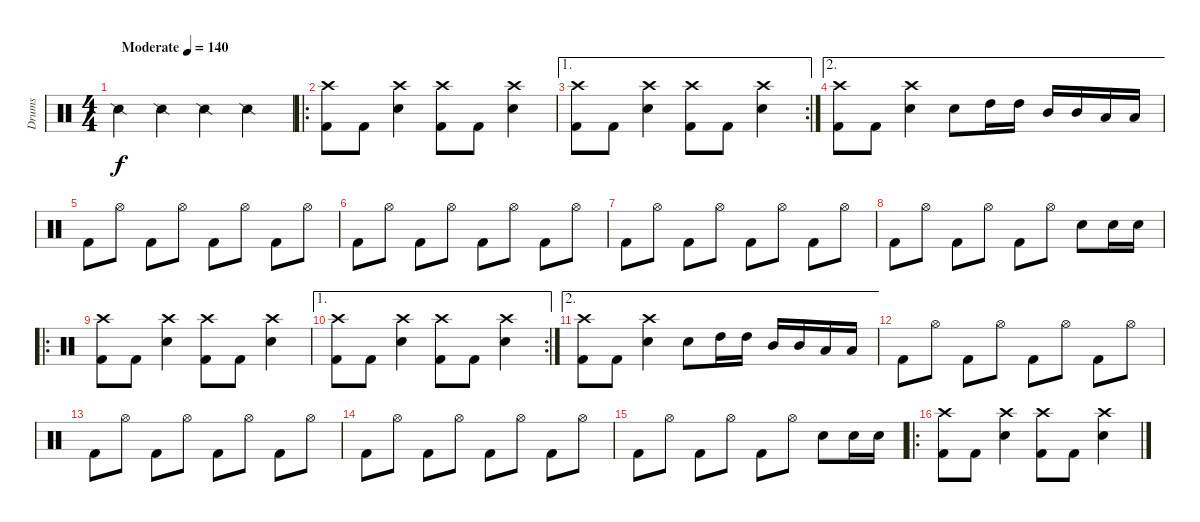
\track ("Drums" "Drums") {instrument percussion}
\staff {score}
\articulation defaults
\ts (4 4)
\tempo (140 "Moderate")
\clef neutral
\ks c "Snare (side stick) 2".4{dy f} "Snare (side stick) 2".4 "Snare (side stick) 2".4 "Snare (side stick) 2".4
|
\ro
("Crash high (hit)" "Kick (hit) 2").8 "Kick (hit) 2".8 ("Crash high (hit)" "Snare (hit) 2").4 ("Crash high (hit)" "Kick (hit) 2").8 "Kick (hit) 2".8 ("Crash high (hit)" "Snare (hit) 2").4 |
\ae 1
\rc 2
("Crash high (hit)" "Kick (hit) 2").8 "Kick (hit) 2".8 ("Crash high (hit)" "Snare (hit) 2").4 ("Crash high (hit)" "Kick (hit) 2").8 "Kick (hit) 2".8 ("Crash high (hit)" "Snare (hit) 2").4 |
\ae 2
("Crash high (hit)" "Kick (hit) 2").8 "Kick (hit) 2".8 ("Crash high (hit)" "Snare (hit) 2").4 "Snare (hit) 2".8 "High Tom (hit)".16 "High Tom (hit)".16 "Mid Tom (hit)".16 "Mid Tom (hit)".16 "Low Tom (hit)".16 "Low Tom (hit)".16 |
"Kick (hit) 2".8 "Hi-Hat (open)".8 "Kick (hit) 2".8 "Hi-Hat (open)".8 "Kick (hit) 2".8 "Hi-Hat (open)".8 "Kick (hit) 2".8 "Hi-Hat (open)".8 |
"Kick (hit) 2".8 "Hi-Hat (open)".8 "Kick (hit) 2".8 "Hi-Hat (open)".8 "Kick (hit) 2".8 "Hi-Hat (open)".8 "Kick (hit) 2".8 "Hi-Hat (open)".8 |
"Kick (hit) 2".8 "Hi-Hat (open)".8 "Kick (hit) 2".8 "Hi-Hat (open)".8 "Kick (hit) 2".8 "Hi-Hat (open)".8 "Kick (hit) 2".8 "Hi-Hat (open)".8 |
"Kick (hit) 2".8 "Hi-Hat (open)".8 "Kick (hit) 2".8 "Hi-Hat (open)".8 "Kick (hit) 2".8 "Hi-Hat (open)".8 "Snare (hit) 2".8 "Snare (hit) 2".16 "Snare (hit) 2".16 |
\ro
("Crash high (hit)" "Kick (hit) 2").8 "Kick (hit) 2".8 ("Crash high (hit)" "Snare (hit) 2").4 ("Crash high (hit)" "Kick (hit) 2").8 "Kick (hit) 2".8 ("Crash high (hit)" "Snare (hit) 2").4 |
\ae 1
\rc 2
("Crash high (hit)" "Kick (hit) 2").8 "Kick (hit) 2".8 ("Crash high (hit)" "Snare (hit) 2").4 ("Crash high (hit)" "Kick (hit) 2").8 "Kick (hit) 2".8 ("Crash high (hit)" "Snare (hit) 2").4 |
\ae 2
("Crash high (hit)" "Kick (hit) 2").8 "Kick (hit) 2".8 ("Crash high (hit)" "Snare (hit) 2").4 "Snare (hit) 2".8 "High Tom (hit)".16 "High Tom (hit)".16 "Mid Tom (hit)".16 "Mid Tom (hit)".16 "Low Tom (hit)".16 "Low Tom (hit)".16 |
"Kick (hit) 2".8 "Hi-Hat (open)".8 "Kick (hit) 2".8 "Hi-Hat (open)".8 "Kick (hit) 2".8 "Hi-Hat (open)".8 "Kick (hit) 2".8 "Hi-Hat (open)".8 |
"Kick (hit) 2".8 "Hi-Hat (open)".8 "Kick (hit) 2".8 "Hi-Hat (open)".8 "Kick (hit) 2".8 "Hi-Hat (open)".8 "Kick (hit) 2".8 "Hi-Hat (open)".8 |
"Kick (hit) 2".8 "Hi-Hat (open)".8 "Kick (hit) 2".8 "Hi-Hat (open)".8 "Kick (hit) 2".8 "Hi-Hat (open)".8 "Kick (hit) 2".8 "Hi-Hat (open)".8 |
"Kick (hit) 2".8 "Hi-Hat (open)".8 "Kick (hit) 2".8 "Hi-Hat (open)".8 "Kick (hit) 2".8 "Hi-Hat (open)".8 "Snare (hit) 2".8 "Snare (hit) 2".16 "Snare (hit) 2".16 |
\ro
("Crash high (hit)" "Kick (hit) 2").8 "Kick (hit) 2".8 ("Crash high (hit)" "Snare (hit) 2").4 ("Crash high (hit)" "Kick (hit) 2").8 "Kick (hit) 2".8 ("Crash high (hit)" "Snare (hit) 2").4
